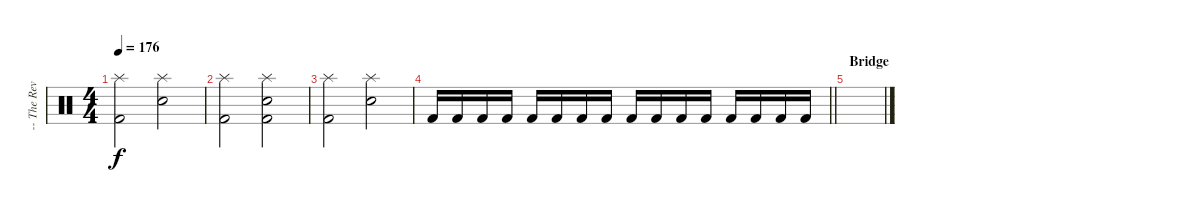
\track ("-- The Reverend - Drums" "-- The Rev") {instrument percussion}
\staff {score}
\articulation defaults
\ts (4 4)
\tempo 176
\clef neutral
\ks c
("Splash (hit)" "Kick (hit) 2").2{dy f} ("Splash (hit)" "Snare (hit) 2").2 |
("Splash (hit)" "Kick (hit) 2").2 ("Splash (hit)" "Snare (hit) 2" "Kick (hit) 2").2 |
("Splash (hit)" "Kick (hit) 2").2 ("Splash (hit)" "Snare (hit) 2").2 |
\barLineRight lightlight "Kick (hit) 2".16 "Kick (hit) 2".16 "Kick (hit) 2".16 "Kick (hit) 2".16 "Kick (hit) 2".16 "Kick (hit) 2".16 "Kick (hit) 2".16 "Kick (hit) 2".16 "Kick (hit) 2".16 "Kick (hit) 2".16 "Kick (hit) 2".16 "Kick (hit) 2".16 "Kick (hit) 2".16 "Kick (hit) 2".16 "Kick (hit) 2".16 "Kick (hit) 2".16
|
\section ("" "Bridge")
